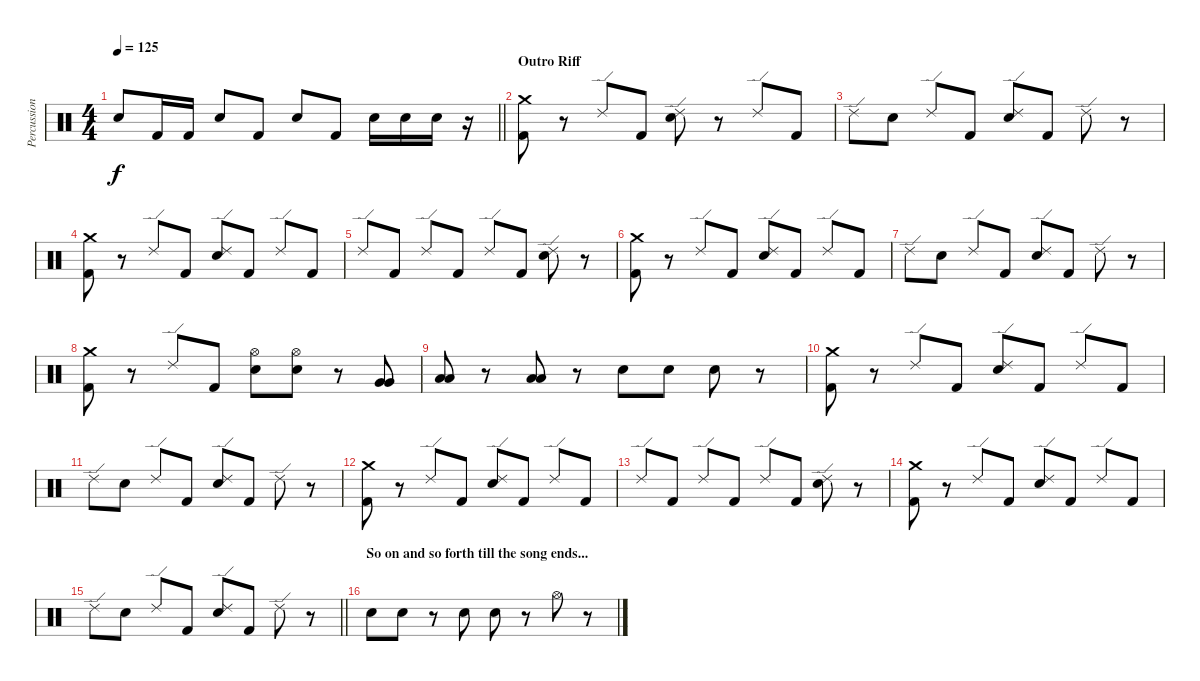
\track ("Percussion" "Percussion") {instrument percussion}
\staff {score}
\articulation defaults
\ts (4 4)
\tempo 125
\clef neutral
\barLineRight lightlight
\ks c "Electric Snare (hit)".8{dy f} "Kick (hit) 2".16 "Kick (hit) 2".16 "Electric Snare (hit)".8 "Kick (hit) 2".8 "Electric Snare (hit)".8 "Kick (hit) 2".8 "Electric Snare (hit)".16 "Electric Snare (hit)".16 "Electric Snare (hit)".16
r.16 |
\section ("" "Outro Riff")
("Kick (hit) 2" "Crash medium (hit)").8 r.8 "Ride (edge) 2".8 "Kick (hit) 2".8 ("Ride (edge) 2" "Electric Snare (hit)").8 r.8 "Ride (edge) 2".8 "Kick (hit) 2".8 |
"Ride (edge) 2".8 "Electric Snare (hit)".8 "Ride (edge) 2".8 "Kick (hit) 2".8 ("Ride (edge) 2" "Electric Snare (hit)").8 "Kick (hit) 2".8 "Ride (edge) 2".8 r.8 |
("Kick (hit) 2" "Crash medium (hit)").8 r.8 "Ride (edge) 2".8 "Kick (hit) 2".8 ("Ride (edge) 2" "Electric Snare (hit)").8 "Kick (hit) 2".8 "Ride (edge) 2".8 "Kick (hit) 2".8 |
"Ride (edge) 2".8 "Kick (hit) 2".8 "Ride (edge) 2".8 "Kick (hit) 2".8 "Ride (edge) 2".8 "Kick (hit) 2".8 ("Ride (edge) 2" "Electric Snare (hit)").8 r.8 |
("Kick (hit) 2" "Crash medium (hit)").8 r.8 "Ride (edge) 2".8 "Kick (hit) 2".8 ("Ride (edge) 2" "Electric Snare (hit)").8 "Kick (hit) 2".8 "Ride (edge) 2".8 "Kick (hit) 2".8 |
"Ride (edge) 2".8 "Electric Snare (hit)".8 "Ride (edge) 2".8 "Kick (hit) 2".8 ("Ride (edge) 2" "Electric Snare (hit)").8 "Kick (hit) 2".8 "Ride (edge) 2".8 r.8 |
("Crash medium (hit)" "Kick (hit) 2").8 r.8 "Ride (edge) 2".8 "Kick (hit) 2".8 ("Hi-Hat (open)" "Electric Snare (hit)").8 ("Hi-Hat (open)" "Electric Snare (hit)").8 r.8 ("Very Low Tom (hit)" "Very Low Tom (hit)").8 |
("Low Tom (hit)" "Low Tom (hit)").8 r.8 ("Low Tom (hit)" "Low Tom (hit)").8 r.8 "Electric Snare (hit)".8 "Electric Snare (hit)".8 "Electric Snare (hit)".8 r.8 |
("Kick (hit) 2" "Crash medium (hit)").8 r.8 "Ride (edge) 2".8 "Kick (hit) 2".8 ("Ride (edge) 2" "Electric Snare (hit)").8 "Kick (hit) 2".8 "Ride (edge) 2".8 "Kick (hit) 2".8 |
"Ride (edge) 2".8 "Electric Snare (hit)".8 "Ride (edge) 2".8 "Kick (hit) 2".8 ("Ride (edge) 2" "Electric Snare (hit)").8 "Kick (hit) 2".8 "Ride (edge) 2".8 r.8 |
("Kick (hit) 2" "Crash medium (hit)").8 r.8 "Ride (edge) 2".8 "Kick (hit) 2".8 ("Ride (edge) 2" "Electric Snare (hit)").8 "Kick (hit) 2".8 "Ride (edge) 2".8 "Kick (hit) 2".8 |
"Ride (edge) 2".8 "Kick (hit) 2".8 "Ride (edge) 2".8 "Kick (hit) 2".8 "Ride (edge) 2".8 "Kick (hit) 2".8 ("Ride (edge) 2" "Electric Snare (hit)").8 r.8 |
("Kick (hit) 2" "Crash medium (hit)").8 r.8 "Ride (edge) 2".8 "Kick (hit) 2".8 ("Ride (edge) 2" "Electric Snare (hit)").8 "Kick (hit) 2".8 "Ride (edge) 2".8 "Kick (hit) 2".8 |
\barLineRight lightlight "Ride (edge) 2".8 "Electric Snare (hit)".8 "Ride (edge) 2".8 "Kick (hit) 2".8
("Ride (edge) 2" "Electric Snare (hit)").8 "Kick (hit) 2".8 "Ride (edge) 2".8 r.8 |
\section ("" "So on and so forth till the song ends...")
"Electric Snare (hit)".8 "Electric Snare (hit)".8 r.8 "Electric Snare (hit)".8 "Electric Snare (hit)".8 r.8 "Hi-Hat (open)".8 r.8
